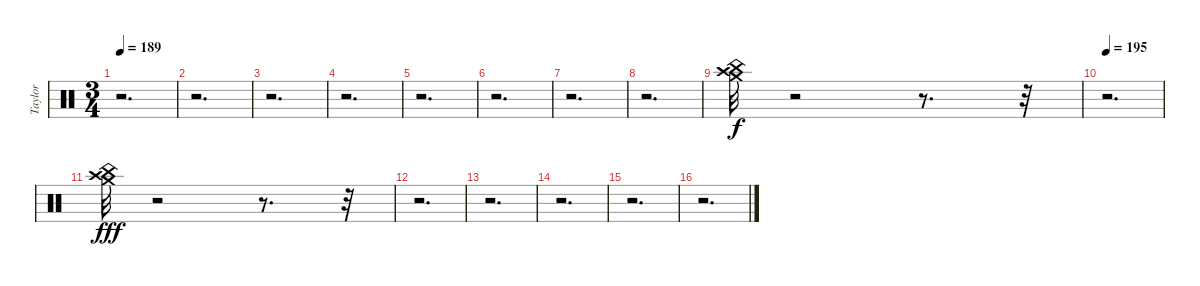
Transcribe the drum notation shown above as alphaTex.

\track ("Taylor" "Taylor") {instrument percussion}
\staff {score}
\articulation defaults
\ts (3 4)
\tempo 189
\clef neutral
\ks c
r.2{d dy f} |
r.2{d} |
r.2{d} |
r.2{d} |
r.2{d} |
r.2{d} |
r.2{d} |
r.2{d} |
("Crash medium (hit)" "Crash high (hit)" "China (hit)").32 r.2 r.8{d} r.32 |
\tempo 195
r.2{d} |
("Crash high (hit)" "China (hit)" "Crash medium (hit)").32{dy fff} r.2 r.8{d} r.32 |
r.2{d} |
r.2{d} |
r.2{d} |
r.2{d} |
r.2{d}
